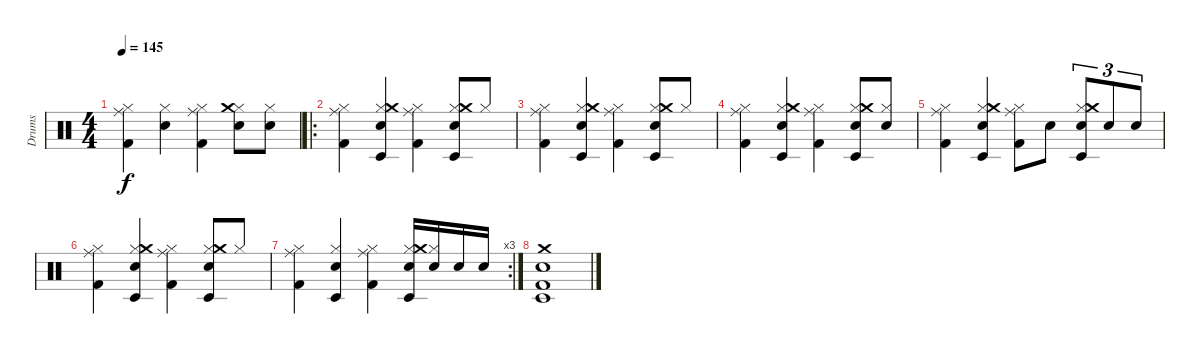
\track ("Drums" "Drums") {instrument percussion}
\staff {score}
\articulation defaults
\ts (4 4)
\tempo 145
\clef neutral
\ks c
("Hi-Hat (closed)" "Ride (middle)" "Kick (hit) 2").4{dy f} ("Hi-Hat (closed)" "Electric Snare (hit)").4 ("Hi-Hat (closed)" "Ride (middle)" "Kick (hit) 2").4 ("Hi-Hat (closed)" "Electric Snare (hit)" "Crash medium (hit)").8 ("Hi-Hat (closed)" "Electric Snare (hit)").8 |
\ro
("Hi-Hat (closed)" "Ride (middle)" "Kick (hit) 2").4 ("Hi-Hat (closed)" "Electric Snare (hit)" "Crash medium (hit)" "Timbale low (hit)").4 ("Hi-Hat (closed)" "Ride (middle)" "Kick (hit) 2").4 ("Hi-Hat (closed)" "Electric Snare (hit)" "Crash medium (hit)" "Timbale low (hit)").8 "Hi-Hat (closed)".8 |
("Hi-Hat (closed)" "Ride (middle)" "Kick (hit) 2").4 ("Hi-Hat (closed)" "Electric Snare (hit)" "Crash medium (hit)" "Timbale low (hit)").4 ("Hi-Hat (closed)" "Ride (middle)" "Kick (hit) 2").4 ("Hi-Hat (closed)" "Electric Snare (hit)" "Crash medium (hit)" "Timbale low (hit)").8 "Hi-Hat (closed)".8 |
("Hi-Hat (closed)" "Ride (middle)" "Kick (hit) 2").4 ("Hi-Hat (closed)" "Electric Snare (hit)" "Crash medium (hit)" "Timbale low (hit)").4 ("Hi-Hat (closed)" "Ride (middle)" "Kick (hit) 2").4 ("Hi-Hat (closed)" "Electric Snare (hit)" "Crash medium (hit)" "Timbale low (hit)").8 ("Hi-Hat (closed)" "Electric Snare (hit)").8 |
("Hi-Hat (closed)" "Ride (middle)" "Kick (hit) 2").4 ("Hi-Hat (closed)" "Electric Snare (hit)" "Crash medium (hit)" "Timbale low (hit)").4 ("Hi-Hat (closed)" "Ride (middle)" "Kick (hit) 2").8 "Electric Snare (hit)".8 ("Hi-Hat (closed)" "Electric Snare (hit)" "Crash medium (hit)" "Timbale low (hit)").8{tu (3 2)} "Electric Snare (hit)".8{tu (3 2)} "Electric Snare (hit)".8{tu (3 2)} |
("Hi-Hat (closed)" "Ride (middle)" "Kick (hit) 2").4 ("Hi-Hat (closed)" "Electric Snare (hit)" "Crash medium (hit)" "Timbale low (hit)").4 ("Hi-Hat (closed)" "Ride (middle)" "Kick (hit) 2").4 ("Hi-Hat (closed)" "Electric Snare (hit)" "Crash medium (hit)" "Timbale low (hit)").8 "Hi-Hat (closed)".8 |
\rc 3
("Hi-Hat (closed)" "Ride (middle)" "Kick (hit) 2").4 ("Hi-Hat (closed)" "Electric Snare (hit)" "Timbale low (hit)").4 ("Hi-Hat (closed)" "Ride (middle)" "Kick (hit) 2").4 ("Hi-Hat (closed)" "Electric Snare (hit)" "Crash medium (hit)" "Timbale low (hit)").16 ("Hi-Hat (closed)" "Electric Snare (hit)").16 "Electric Snare (hit)".16 "Electric Snare (hit)".16 |
("Crash medium (hit)" "Electric Snare (hit)" "Timbale low (hit)" "Kick (hit) 2").1
